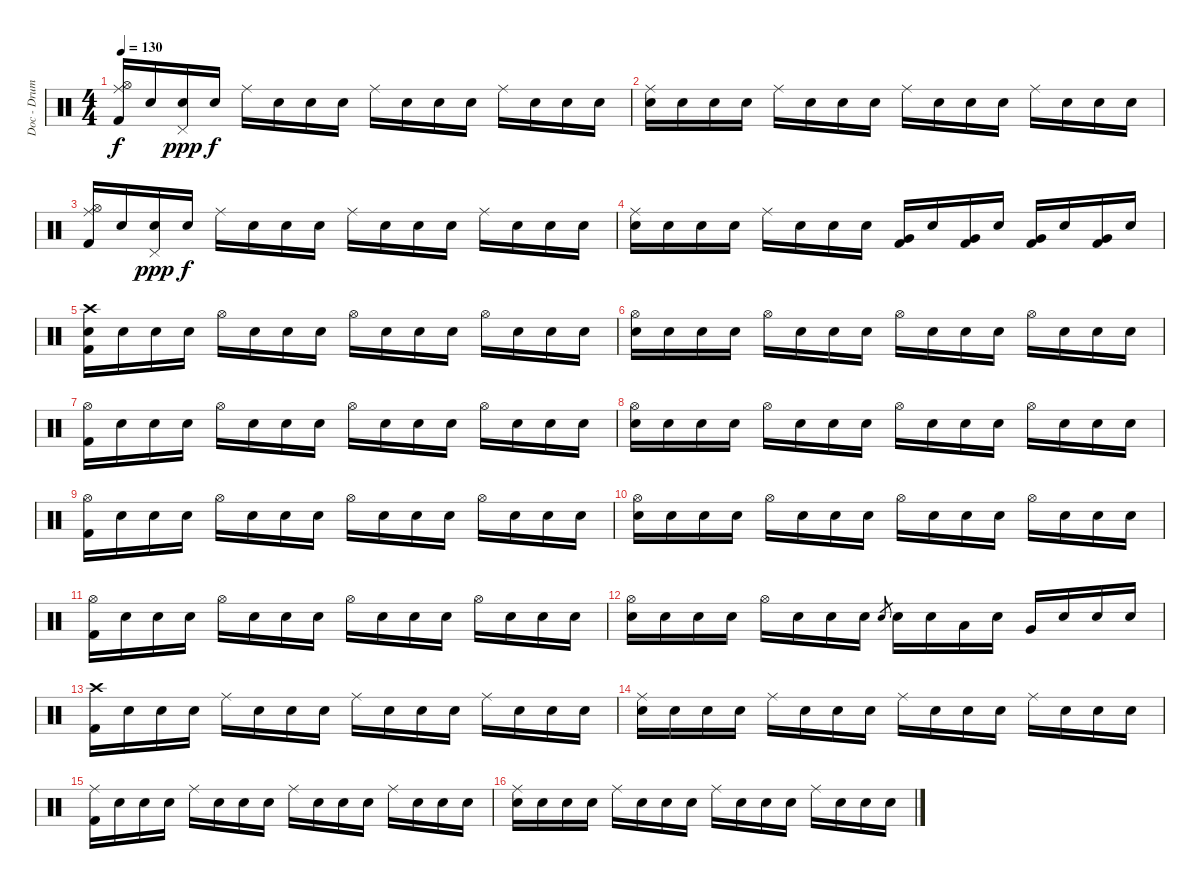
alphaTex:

\track ("Doc - Drums" "Doc - Drum") {instrument percussion}
\staff {score}
\articulation defaults
\ts (4 4)
\tempo 130
\clef neutral
\ks c
("Ride (middle)" "Hi-Hat (open)" "Kick (hit) 2").16{dy f} "Snare (hit)".16 ("Pedal Hi-Hat (hit)" "Snare (hit)").16{dy ppp} "Snare (hit)".16{dy f} "Ride (middle)".16 "Snare (hit)".16 "Snare (hit)".16 "Snare (hit)".16 "Ride (middle)".16 "Snare (hit)".16 "Snare (hit)".16 "Snare (hit)".16 "Ride (middle)".16 "Snare (hit)".16 "Snare (hit)".16 "Snare (hit)".16 |
("Ride (middle)" "Electric Snare (hit)").16 "Snare (hit)".16 "Snare (hit)".16 "Snare (hit)".16 "Ride (middle)".16 "Snare (hit)".16 "Snare (hit)".16 "Snare (hit)".16 "Ride (middle)".16 "Snare (hit)".16 "Snare (hit)".16 "Snare (hit)".16 "Ride (middle)".16 "Snare (hit)".16 "Snare (hit)".16 "Snare (hit)".16 |
("Ride (middle)" "Hi-Hat (open)" "Kick (hit) 2").16 "Snare (hit)".16 ("Pedal Hi-Hat (hit)" "Snare (hit)").16{dy ppp} "Snare (hit)".16{dy f} "Ride (middle)".16 "Snare (hit)".16 "Snare (hit)".16 "Snare (hit)".16 "Ride (middle)".16 "Snare (hit)".16 "Snare (hit)".16 "Snare (hit)".16 "Ride (middle)".16 "Snare (hit)".16 "Snare (hit)".16 "Snare (hit)".16 |
("Ride (middle)" "Electric Snare (hit)").16 "Snare (hit)".16 "Snare (hit)".16 "Snare (hit)".16 "Ride (middle)".16 "Snare (hit)".16 "Snare (hit)".16 "Snare (hit)".16 ("Very Low Tom (hit)" "Kick (hit) 2").16 "Snare (hit)".16 ("Very Low Tom (hit)" "Kick (hit) 2").16 "Snare (hit)".16 ("Very Low Tom (hit)" "Kick (hit) 2").16 "Snare (hit)".16 ("Very Low Tom (hit)" "Kick (hit) 2").16 "Snare (hit)".16 |
("Crash high (hit)" "Electric Snare (hit)" "Kick (hit) 2").16 "Snare (hit)".16 "Snare (hit)".16 "Snare (hit)".16 "Hi-Hat (open)".16 "Snare (hit)".16 "Snare (hit)".16 "Snare (hit)".16 "Hi-Hat (open)".16 "Snare (hit)".16 "Snare (hit)".16 "Snare (hit)".16 "Hi-Hat (open)".16 "Snare (hit)".16 "Snare (hit)".16 "Snare (hit)".16 |
("Hi-Hat (open)" "Electric Snare (hit)").16 "Snare (hit)".16 "Snare (hit)".16 "Snare (hit)".16 "Hi-Hat (open)".16 "Snare (hit)".16 "Snare (hit)".16 "Snare (hit)".16 "Hi-Hat (open)".16 "Snare (hit)".16 "Snare (hit)".16 "Snare (hit)".16 "Hi-Hat (open)".16 "Snare (hit)".16 "Snare (hit)".16 "Snare (hit)".16 |
("Hi-Hat (open)" "Kick (hit) 2").16 "Snare (hit)".16 "Snare (hit)".16 "Snare (hit)".16 "Hi-Hat (open)".16 "Snare (hit)".16 "Snare (hit)".16 "Snare (hit)".16 "Hi-Hat (open)".16 "Snare (hit)".16 "Snare (hit)".16 "Snare (hit)".16 "Hi-Hat (open)".16 "Snare (hit)".16 "Snare (hit)".16 "Snare (hit)".16 |
("Hi-Hat (open)" "Electric Snare (hit)").16 "Snare (hit)".16 "Snare (hit)".16 "Snare (hit)".16 "Hi-Hat (open)".16 "Snare (hit)".16 "Snare (hit)".16 "Snare (hit)".16 "Hi-Hat (open)".16 "Snare (hit)".16 "Snare (hit)".16 "Snare (hit)".16 "Hi-Hat (open)".16 "Snare (hit)".16 "Snare (hit)".16 "Snare (hit)".16 |
("Hi-Hat (open)" "Kick (hit) 2").16 "Snare (hit)".16 "Snare (hit)".16 "Snare (hit)".16 "Hi-Hat (open)".16 "Snare (hit)".16 "Snare (hit)".16 "Snare (hit)".16 "Hi-Hat (open)".16 "Snare (hit)".16 "Snare (hit)".16 "Snare (hit)".16 "Hi-Hat (open)".16 "Snare (hit)".16 "Snare (hit)".16 "Snare (hit)".16 |
("Hi-Hat (open)" "Electric Snare (hit)").16 "Snare (hit)".16 "Snare (hit)".16 "Snare (hit)".16 "Hi-Hat (open)".16 "Snare (hit)".16 "Snare (hit)".16 "Snare (hit)".16 "Hi-Hat (open)".16 "Snare (hit)".16 "Snare (hit)".16 "Snare (hit)".16 "Hi-Hat (open)".16 "Snare (hit)".16 "Snare (hit)".16 "Snare (hit)".16 |
("Hi-Hat (open)" "Kick (hit) 2").16 "Snare (hit)".16 "Snare (hit)".16 "Snare (hit)".16 "Hi-Hat (open)".16 "Snare (hit)".16 "Snare (hit)".16 "Snare (hit)".16 "Hi-Hat (open)".16 "Snare (hit)".16 "Snare (hit)".16 "Snare (hit)".16 "Hi-Hat (open)".16 "Snare (hit)".16 "Snare (hit)".16 "Snare (hit)".16 |
("Hi-Hat (open)" "Electric Snare (hit)").16 "Snare (hit)".16 "Snare (hit)".16 "Snare (hit)".16 "Hi-Hat (open)".16 "Snare (hit)".16 "Snare (hit)".16 "Snare (hit)".16 "Electric Snare (hit)".8{gr} "Electric Snare (hit)".16 "Snare (hit)".16 "Low Tom (hit)".16 "Snare (hit)".16 "Very Low Tom (hit)".16 "Snare (hit)".16 "Snare (hit)".16 "Snare (hit)".16 |
("Crash high (hit)" "Kick (hit) 2").16 "Snare (hit)".16 "Snare (hit)".16 "Snare (hit)".16 "Ride (middle)".16 "Snare (hit)".16 "Snare (hit)".16 "Snare (hit)".16 "Ride (middle)".16 "Snare (hit)".16 "Snare (hit)".16 "Snare (hit)".16 "Ride (middle)".16 "Snare (hit)".16 "Snare (hit)".16 "Snare (hit)".16 |
("Ride (middle)" "Electric Snare (hit)").16 "Snare (hit)".16 "Snare (hit)".16 "Snare (hit)".16 "Ride (middle)".16 "Snare (hit)".16 "Snare (hit)".16 "Snare (hit)".16 "Ride (middle)".16 "Snare (hit)".16 "Snare (hit)".16 "Snare (hit)".16 "Ride (middle)".16 "Snare (hit)".16 "Snare (hit)".16 "Snare (hit)".16 |
("Ride (middle)" "Kick (hit) 2").16 "Snare (hit)".16 "Snare (hit)".16 "Snare (hit)".16 "Ride (middle)".16 "Snare (hit)".16 "Snare (hit)".16 "Snare (hit)".16 "Ride (middle)".16 "Snare (hit)".16 "Snare (hit)".16 "Snare (hit)".16 "Ride (middle)".16 "Snare (hit)".16 "Snare (hit)".16 "Snare (hit)".16 |
("Ride (middle)" "Electric Snare (hit)").16 "Snare (hit)".16 "Snare (hit)".16 "Snare (hit)".16 "Ride (middle)".16 "Snare (hit)".16 "Snare (hit)".16 "Snare (hit)".16 "Ride (middle)".16 "Snare (hit)".16 "Snare (hit)".16 "Snare (hit)".16 "Ride (middle)".16 "Snare (hit)".16 "Snare (hit)".16 "Snare (hit)".16
